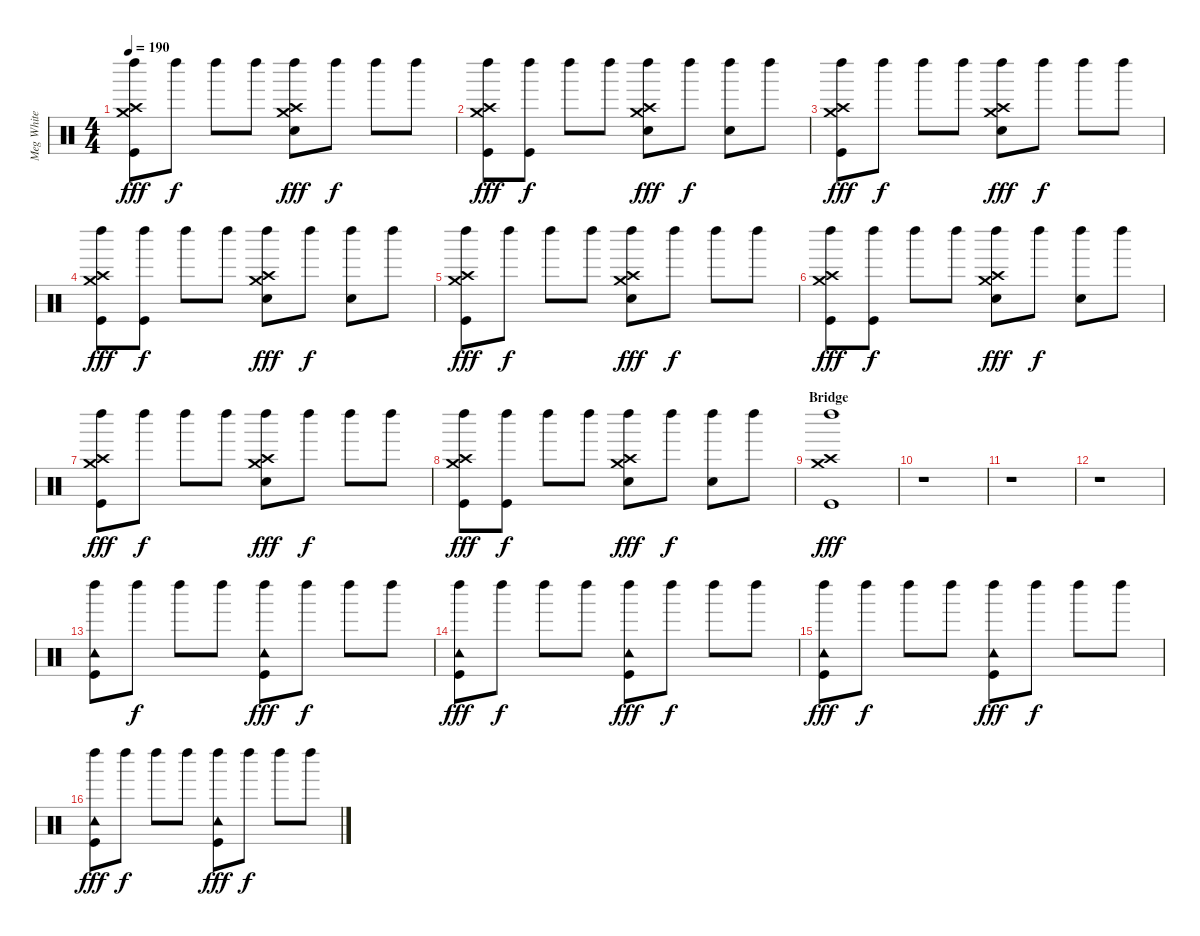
\track ("Meg White" "Meg White") {instrument percussion}
\staff {score}
\articulation defaults
\ts (4 4)
\tempo 190
\clef neutral
\ks c
("Crash high (hit)" "Crash medium (hit)" "Kick (hit)" "Left Maraca (hit)").8{dy fff} "Left Maraca (hit)".8{dy f} "Left Maraca (hit)".8 "Left Maraca (hit)".8 ("Crash high (hit)" "Crash medium (hit)" "Snare (hit) 2" "Left Maraca (hit)").8{dy fff} "Left Maraca (hit)".8{dy f} "Left Maraca (hit)".8 "Left Maraca (hit)".8 |
("Crash high (hit)" "Crash medium (hit)" "Kick (hit)" "Left Maraca (hit)").8{dy fff} ("Kick (hit)" "Left Maraca (hit)").8{dy f} "Left Maraca (hit)".8 "Left Maraca (hit)".8 ("Crash high (hit)" "Crash medium (hit)" "Snare (hit) 2" "Left Maraca (hit)").8{dy fff} "Left Maraca (hit)".8{dy f} ("Snare (hit) 2" "Left Maraca (hit)").8 "Left Maraca (hit)".8 |
("Crash high (hit)" "Crash medium (hit)" "Kick (hit)" "Left Maraca (hit)").8{dy fff} "Left Maraca (hit)".8{dy f} "Left Maraca (hit)".8 "Left Maraca (hit)".8 ("Crash high (hit)" "Crash medium (hit)" "Snare (hit) 2" "Left Maraca (hit)").8{dy fff} "Left Maraca (hit)".8{dy f} "Left Maraca (hit)".8 "Left Maraca (hit)".8 |
("Crash high (hit)" "Crash medium (hit)" "Kick (hit)" "Left Maraca (hit)").8{dy fff} ("Kick (hit)" "Left Maraca (hit)").8{dy f} "Left Maraca (hit)".8 "Left Maraca (hit)".8 ("Crash high (hit)" "Crash medium (hit)" "Snare (hit) 2" "Left Maraca (hit)").8{dy fff} "Left Maraca (hit)".8{dy f} ("Snare (hit) 2" "Left Maraca (hit)").8 "Left Maraca (hit)".8 |
("Crash high (hit)" "Crash medium (hit)" "Kick (hit)" "Left Maraca (hit)").8{dy fff} "Left Maraca (hit)".8{dy f} "Left Maraca (hit)".8 "Left Maraca (hit)".8 ("Crash high (hit)" "Crash medium (hit)" "Snare (hit) 2" "Left Maraca (hit)").8{dy fff} "Left Maraca (hit)".8{dy f} "Left Maraca (hit)".8 "Left Maraca (hit)".8 |
("Crash high (hit)" "Crash medium (hit)" "Kick (hit)" "Left Maraca (hit)").8{dy fff} ("Kick (hit)" "Left Maraca (hit)").8{dy f} "Left Maraca (hit)".8 "Left Maraca (hit)".8 ("Crash high (hit)" "Crash medium (hit)" "Snare (hit) 2" "Left Maraca (hit)").8{dy fff} "Left Maraca (hit)".8{dy f} ("Snare (hit) 2" "Left Maraca (hit)").8 "Left Maraca (hit)".8 |
("Crash high (hit)" "Crash medium (hit)" "Kick (hit)" "Left Maraca (hit)").8{dy fff} "Left Maraca (hit)".8{dy f} "Left Maraca (hit)".8 "Left Maraca (hit)".8 ("Crash high (hit)" "Crash medium (hit)" "Snare (hit) 2" "Left Maraca (hit)").8{dy fff} "Left Maraca (hit)".8{dy f} "Left Maraca (hit)".8 "Left Maraca (hit)".8 |
("Crash high (hit)" "Crash medium (hit)" "Kick (hit)" "Left Maraca (hit)").8{dy fff} ("Kick (hit)" "Left Maraca (hit)").8{dy f} "Left Maraca (hit)".8 "Left Maraca (hit)".8 ("Crash high (hit)" "Crash medium (hit)" "Snare (hit) 2" "Left Maraca (hit)").8{dy fff} "Left Maraca (hit)".8{dy f} ("Snare (hit) 2" "Left Maraca (hit)").8 "Left Maraca (hit)".8 |
\section ("" "Bridge")
("Crash high (hit)" "Crash medium (hit)" "Kick (hit)" "Left Maraca (hit)").1{dy fff} |
r.1 |
r.1 |
r.1 |
("Tambourine (hit)" "Kick (hit)" "Left Maraca (hit)").8 "Left Maraca (hit)".8{dy f} "Left Maraca (hit)".8 "Left Maraca (hit)".8 ("Tambourine (hit)" "Kick (hit)" "Left Maraca (hit)").8{dy fff} "Left Maraca (hit)".8{dy f} "Left Maraca (hit)".8 "Left Maraca (hit)".8 |
("Tambourine (hit)" "Kick (hit)" "Left Maraca (hit)").8{dy fff} "Left Maraca (hit)".8{dy f} "Left Maraca (hit)".8 "Left Maraca (hit)".8 ("Tambourine (hit)" "Kick (hit)" "Left Maraca (hit)").8{dy fff} "Left Maraca (hit)".8{dy f} "Left Maraca (hit)".8 "Left Maraca (hit)".8 |
("Tambourine (hit)" "Kick (hit)" "Left Maraca (hit)").8{dy fff} "Left Maraca (hit)".8{dy f} "Left Maraca (hit)".8 "Left Maraca (hit)".8 ("Tambourine (hit)" "Kick (hit)" "Left Maraca (hit)").8{dy fff} "Left Maraca (hit)".8{dy f} "Left Maraca (hit)".8 "Left Maraca (hit)".8 |
("Tambourine (hit)" "Kick (hit)" "Left Maraca (hit)").8{dy fff} "Left Maraca (hit)".8{dy f} "Left Maraca (hit)".8 "Left Maraca (hit)".8 ("Tambourine (hit)" "Kick (hit)" "Left Maraca (hit)").8{dy fff} "Left Maraca (hit)".8{dy f} "Left Maraca (hit)".8 "Left Maraca (hit)".8
